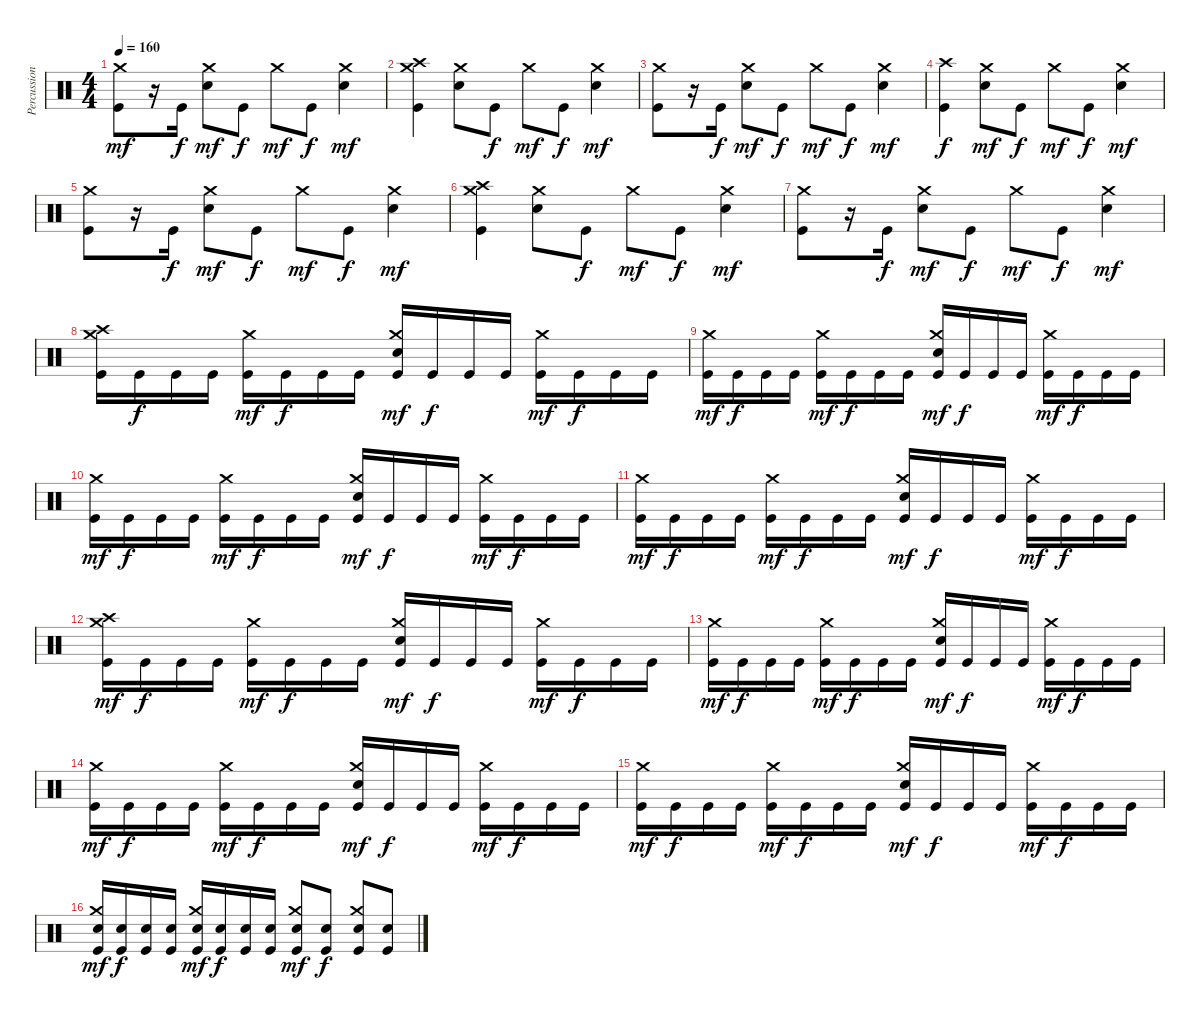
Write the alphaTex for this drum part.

\track ("Percussion" "Percussion") {instrument percussion}
\staff {score}
\articulation defaults
\ts (4 4)
\tempo 160
\clef neutral
\ks c
("Kick (hit)" "Crash medium (hit)").8{dy mf} r.16 "Kick (hit)".16{dy f} ("Electric Snare (hit)" "Crash medium (hit)").8{dy mf} "Kick (hit)".8{dy f} "Crash medium (hit)".8{dy mf} "Kick (hit)".8{dy f} ("Electric Snare (hit)" "Crash medium (hit)").4{dy mf} |
("Kick (hit)" "Crash medium (hit)" "Crash high (hit)").4 ("Electric Snare (hit)" "Crash medium (hit)").8 "Kick (hit)".8{dy f} "Crash medium (hit)".8{dy mf} "Kick (hit)".8{dy f} ("Electric Snare (hit)" "Crash medium (hit)").4{dy mf} |
("Kick (hit)" "Crash medium (hit)").8 r.16 "Kick (hit)".16{dy f} ("Electric Snare (hit)" "Crash medium (hit)").8{dy mf} "Kick (hit)".8{dy f} "Crash medium (hit)".8{dy mf} "Kick (hit)".8{dy f} ("Electric Snare (hit)" "Crash medium (hit)").4{dy mf} |
("Kick (hit)" "Crash high (hit)").4{dy f} ("Electric Snare (hit)" "Crash medium (hit)").8{dy mf} "Kick (hit)".8{dy f} "Crash medium (hit)".8{dy mf} "Kick (hit)".8{dy f} ("Electric Snare (hit)" "Crash medium (hit)").4{dy mf} |
("Kick (hit)" "Crash medium (hit)").8 r.16 "Kick (hit)".16{dy f} ("Electric Snare (hit)" "Crash medium (hit)").8{dy mf} "Kick (hit)".8{dy f} "Crash medium (hit)".8{dy mf} "Kick (hit)".8{dy f} ("Electric Snare (hit)" "Crash medium (hit)").4{dy mf} |
("Kick (hit)" "Crash medium (hit)" "Crash high (hit)").4 ("Electric Snare (hit)" "Crash medium (hit)").8 "Kick (hit)".8{dy f} "Crash medium (hit)".8{dy mf} "Kick (hit)".8{dy f} ("Electric Snare (hit)" "Crash medium (hit)").4{dy mf} |
("Kick (hit)" "Crash medium (hit)").8 r.16 "Kick (hit)".16{dy f} ("Electric Snare (hit)" "Crash medium (hit)").8{dy mf} "Kick (hit)".8{dy f} "Crash medium (hit)".8{dy mf} "Kick (hit)".8{dy f} ("Electric Snare (hit)" "Crash medium (hit)").4{dy mf} |
("Kick (hit)" "Crash medium (hit)" "Crash high (hit)").16 "Kick (hit)".16{dy f} "Kick (hit)".16 "Kick (hit)".16 ("Kick (hit)" "Crash medium (hit)").16{dy mf} "Kick (hit)".16{dy f} "Kick (hit)".16 "Kick (hit)".16 ("Kick (hit)" "Electric Snare (hit)" "Crash medium (hit)").16{dy mf} "Kick (hit)".16{dy f} "Kick (hit)".16 "Kick (hit)".16 ("Kick (hit)" "Crash medium (hit)").16{dy mf} "Kick (hit)".16{dy f} "Kick (hit)".16 "Kick (hit)".16 |
("Kick (hit)" "Crash medium (hit)").16{dy mf} "Kick (hit)".16{dy f} "Kick (hit)".16 "Kick (hit)".16 ("Kick (hit)" "Crash medium (hit)").16{dy mf} "Kick (hit)".16{dy f} "Kick (hit)".16 "Kick (hit)".16 ("Kick (hit)" "Electric Snare (hit)" "Crash medium (hit)").16{dy mf} "Kick (hit)".16{dy f} "Kick (hit)".16 "Kick (hit)".16 ("Kick (hit)" "Crash medium (hit)").16{dy mf} "Kick (hit)".16{dy f} "Kick (hit)".16 "Kick (hit)".16 |
("Kick (hit)" "Crash medium (hit)").16{dy mf} "Kick (hit)".16{dy f} "Kick (hit)".16 "Kick (hit)".16 ("Kick (hit)" "Crash medium (hit)").16{dy mf} "Kick (hit)".16{dy f} "Kick (hit)".16 "Kick (hit)".16 ("Kick (hit)" "Electric Snare (hit)" "Crash medium (hit)").16{dy mf} "Kick (hit)".16{dy f} "Kick (hit)".16 "Kick (hit)".16 ("Kick (hit)" "Crash medium (hit)").16{dy mf} "Kick (hit)".16{dy f} "Kick (hit)".16 "Kick (hit)".16 |
("Kick (hit)" "Crash medium (hit)").16{dy mf} "Kick (hit)".16{dy f} "Kick (hit)".16 "Kick (hit)".16 ("Kick (hit)" "Crash medium (hit)").16{dy mf} "Kick (hit)".16{dy f} "Kick (hit)".16 "Kick (hit)".16 ("Kick (hit)" "Electric Snare (hit)" "Crash medium (hit)").16{dy mf} "Kick (hit)".16{dy f} "Kick (hit)".16 "Kick (hit)".16 ("Kick (hit)" "Crash medium (hit)").16{dy mf} "Kick (hit)".16{dy f} "Kick (hit)".16 "Kick (hit)".16 |
("Kick (hit)" "Crash medium (hit)" "Crash high (hit)").16{dy mf} "Kick (hit)".16{dy f} "Kick (hit)".16 "Kick (hit)".16 ("Kick (hit)" "Crash medium (hit)").16{dy mf} "Kick (hit)".16{dy f} "Kick (hit)".16 "Kick (hit)".16 ("Kick (hit)" "Electric Snare (hit)" "Crash medium (hit)").16{dy mf} "Kick (hit)".16{dy f} "Kick (hit)".16 "Kick (hit)".16 ("Kick (hit)" "Crash medium (hit)").16{dy mf} "Kick (hit)".16{dy f} "Kick (hit)".16 "Kick (hit)".16 |
("Kick (hit)" "Crash medium (hit)").16{dy mf} "Kick (hit)".16{dy f} "Kick (hit)".16 "Kick (hit)".16 ("Kick (hit)" "Crash medium (hit)").16{dy mf} "Kick (hit)".16{dy f} "Kick (hit)".16 "Kick (hit)".16 ("Kick (hit)" "Electric Snare (hit)" "Crash medium (hit)").16{dy mf} "Kick (hit)".16{dy f} "Kick (hit)".16 "Kick (hit)".16 ("Kick (hit)" "Crash medium (hit)").16{dy mf} "Kick (hit)".16{dy f} "Kick (hit)".16 "Kick (hit)".16 |
("Kick (hit)" "Crash medium (hit)").16{dy mf} "Kick (hit)".16{dy f} "Kick (hit)".16 "Kick (hit)".16 ("Kick (hit)" "Crash medium (hit)").16{dy mf} "Kick (hit)".16{dy f} "Kick (hit)".16 "Kick (hit)".16 ("Kick (hit)" "Electric Snare (hit)" "Crash medium (hit)").16{dy mf} "Kick (hit)".16{dy f} "Kick (hit)".16 "Kick (hit)".16 ("Kick (hit)" "Crash medium (hit)").16{dy mf} "Kick (hit)".16{dy f} "Kick (hit)".16 "Kick (hit)".16 |
("Kick (hit)" "Crash medium (hit)").16{dy mf} "Kick (hit)".16{dy f} "Kick (hit)".16 "Kick (hit)".16 ("Kick (hit)" "Crash medium (hit)").16{dy mf} "Kick (hit)".16{dy f} "Kick (hit)".16 "Kick (hit)".16 ("Kick (hit)" "Electric Snare (hit)" "Crash medium (hit)").16{dy mf} "Kick (hit)".16{dy f} "Kick (hit)".16 "Kick (hit)".16 ("Kick (hit)" "Crash medium (hit)").16{dy mf} "Kick (hit)".16{dy f} "Kick (hit)".16 "Kick (hit)".16 |
("Kick (hit)" "Electric Snare (hit)" "Crash medium (hit)").16{dy mf} ("Kick (hit)" "Electric Snare (hit)").16{dy f} ("Kick (hit)" "Electric Snare (hit)").16 ("Kick (hit)" "Electric Snare (hit)").16 ("Kick (hit)" "Electric Snare (hit)" "Crash medium (hit)").16{dy mf} ("Kick (hit)" "Electric Snare (hit)").16{dy f} ("Kick (hit)" "Electric Snare (hit)").16 ("Kick (hit)" "Electric Snare (hit)").16 ("Kick (hit)" "Electric Snare (hit)" "Crash medium (hit)").8{dy mf} ("Kick (hit)" "Electric Snare (hit)").8{dy f} ("Kick (hit)" "Electric Snare (hit)" "Crash medium (hit)").8 ("Kick (hit)" "Electric Snare (hit)").8
